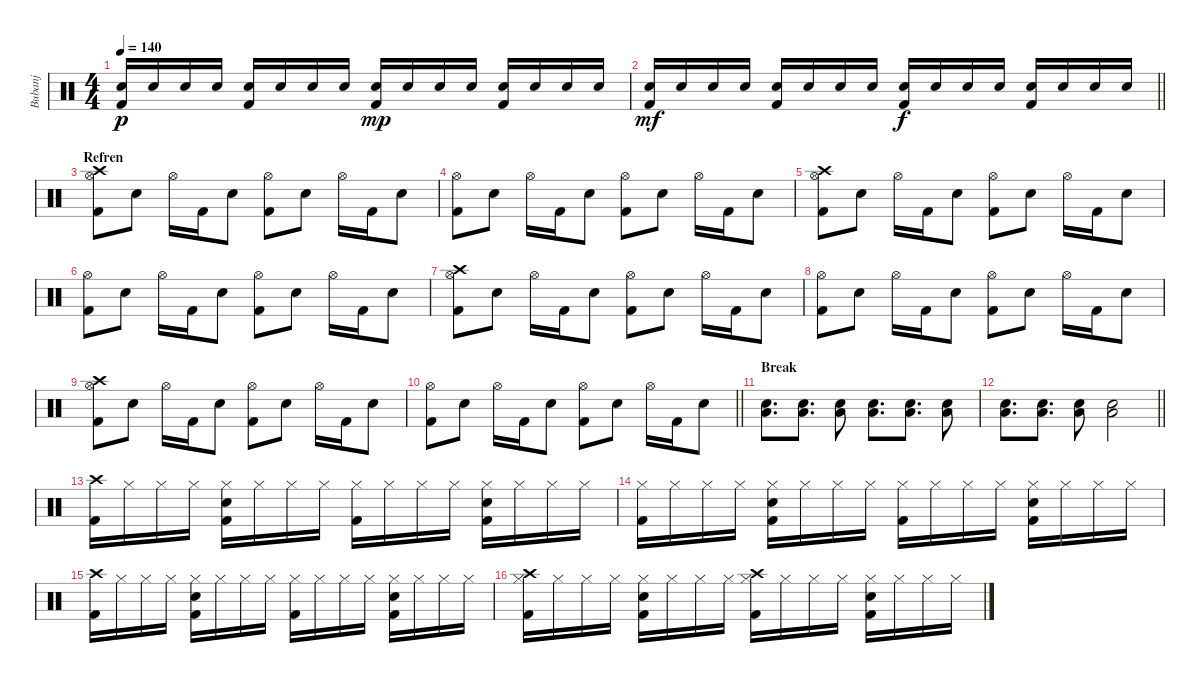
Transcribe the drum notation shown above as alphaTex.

\track ("Bubanj" "Bubanj") {instrument percussion}
\staff {score}
\articulation defaults
\ts (4 4)
\tempo 140
\clef neutral
\ks c
("Kick (hit) 2" "Snare (hit) 2").16{dy p} "Snare (hit) 2".16 "Snare (hit) 2".16 "Snare (hit) 2".16 ("Kick (hit) 2" "Snare (hit) 2").16 "Snare (hit) 2".16 "Snare (hit) 2".16 "Snare (hit) 2".16 ("Kick (hit) 2" "Snare (hit) 2").16{dy mp} "Snare (hit) 2".16 "Snare (hit) 2".16 "Snare (hit) 2".16 ("Kick (hit) 2" "Snare (hit) 2").16 "Snare (hit) 2".16 "Snare (hit) 2".16 "Snare (hit) 2".16 |
\barLineRight lightlight
("Kick (hit) 2" "Snare (hit) 2").16{dy mf} "Snare (hit) 2".16 "Snare (hit) 2".16 "Snare (hit) 2".16 ("Kick (hit) 2" "Snare (hit) 2").16 "Snare (hit) 2".16 "Snare (hit) 2".16 "Snare (hit) 2".16 ("Kick (hit) 2" "Snare (hit) 2").16{dy f} "Snare (hit) 2".16 "Snare (hit) 2".16 "Snare (hit) 2".16 ("Kick (hit) 2" "Snare (hit) 2").16 "Snare (hit) 2".16 "Snare (hit) 2".16 "Snare (hit) 2".16 |
\section ("" "Refren")
("Kick (hit) 2" "Hi-Hat (open)" "Crash high (hit)").8 "Snare (hit) 2".8 "Hi-Hat (open)".16 "Kick (hit) 2".16 "Snare (hit) 2".8 ("Kick (hit) 2" "Hi-Hat (open)").8 "Snare (hit) 2".8 "Hi-Hat (open)".16 "Kick (hit) 2".16 "Snare (hit) 2".8 |
("Kick (hit) 2" "Hi-Hat (open)").8 "Snare (hit) 2".8 "Hi-Hat (open)".16 "Kick (hit) 2".16 "Snare (hit) 2".8 ("Kick (hit) 2" "Hi-Hat (open)").8 "Snare (hit) 2".8 "Hi-Hat (open)".16 "Kick (hit) 2".16 "Snare (hit) 2".8 |
("Kick (hit) 2" "Hi-Hat (open)" "Crash high (hit)").8 "Snare (hit) 2".8 "Hi-Hat (open)".16 "Kick (hit) 2".16 "Snare (hit) 2".8 ("Kick (hit) 2" "Hi-Hat (open)").8 "Snare (hit) 2".8 "Hi-Hat (open)".16 "Kick (hit) 2".16 "Snare (hit) 2".8 |
("Kick (hit) 2" "Hi-Hat (open)").8 "Snare (hit) 2".8 "Hi-Hat (open)".16 "Kick (hit) 2".16 "Snare (hit) 2".8 ("Kick (hit) 2" "Hi-Hat (open)").8 "Snare (hit) 2".8 "Hi-Hat (open)".16 "Kick (hit) 2".16 "Snare (hit) 2".8 |
("Kick (hit) 2" "Hi-Hat (open)" "Crash high (hit)").8 "Snare (hit) 2".8 "Hi-Hat (open)".16 "Kick (hit) 2".16 "Snare (hit) 2".8 ("Kick (hit) 2" "Hi-Hat (open)").8 "Snare (hit) 2".8 "Hi-Hat (open)".16 "Kick (hit) 2".16 "Snare (hit) 2".8 |
("Kick (hit) 2" "Hi-Hat (open)").8 "Snare (hit) 2".8 "Hi-Hat (open)".16 "Kick (hit) 2".16 "Snare (hit) 2".8 ("Kick (hit) 2" "Hi-Hat (open)").8 "Snare (hit) 2".8 "Hi-Hat (open)".16 "Kick (hit) 2".16 "Snare (hit) 2".8 |
("Kick (hit) 2" "Hi-Hat (open)" "Crash high (hit)").8 "Snare (hit) 2".8 "Hi-Hat (open)".16 "Kick (hit) 2".16 "Snare (hit) 2".8 ("Kick (hit) 2" "Hi-Hat (open)").8 "Snare (hit) 2".8 "Hi-Hat (open)".16 "Kick (hit) 2".16 "Snare (hit) 2".8 |
\barLineRight lightlight
("Kick (hit) 2" "Hi-Hat (open)").8 "Snare (hit) 2".8 "Hi-Hat (open)".16 "Kick (hit) 2".16 "Snare (hit) 2".8 ("Kick (hit) 2" "Hi-Hat (open)").8 "Snare (hit) 2".8 "Hi-Hat (open)".16 "Kick (hit) 2".16 "Snare (hit) 2".8 |
\section ("" "Break")
("Low Floor Tom (hit)" "Snare (hit) 2").8{d} ("Low Floor Tom (hit)" "Snare (hit) 2").8{d} ("Low Floor Tom (hit)" "Snare (hit) 2").8 ("Low Floor Tom (hit)" "Snare (hit) 2").8{d} ("Low Floor Tom (hit)" "Snare (hit) 2").8{d} ("Low Floor Tom (hit)" "Snare (hit) 2").8 |
\barLineRight lightlight
("Low Floor Tom (hit)" "Snare (hit) 2").8{d} ("Low Floor Tom (hit)" "Snare (hit) 2").8{d} ("Low Floor Tom (hit)" "Snare (hit) 2").8 ("Low Floor Tom (hit)" "Snare (hit) 2").2 |
("Kick (hit) 2" "Crash high (hit)").16 "Hi-Hat (closed)".16 "Hi-Hat (closed)".16 "Hi-Hat (closed)".16 ("Kick (hit) 2" "Snare (hit) 2" "Hi-Hat (closed)").16 "Hi-Hat (closed)".16 "Hi-Hat (closed)".16 "Hi-Hat (closed)".16 ("Kick (hit) 2" "Hi-Hat (closed)").16 "Hi-Hat (closed)".16 "Hi-Hat (closed)".16 "Hi-Hat (closed)".16 ("Kick (hit) 2" "Snare (hit) 2" "Hi-Hat (closed)").16 "Hi-Hat (closed)".16 "Hi-Hat (closed)".16 "Hi-Hat (closed)".16 |
("Kick (hit) 2" "Hi-Hat (closed)").16 "Hi-Hat (closed)".16 "Hi-Hat (closed)".16 "Hi-Hat (closed)".16 ("Kick (hit) 2" "Snare (hit) 2" "Hi-Hat (closed)").16 "Hi-Hat (closed)".16 "Hi-Hat (closed)".16 "Hi-Hat (closed)".16 ("Kick (hit) 2" "Hi-Hat (closed)").16 "Hi-Hat (closed)".16 "Hi-Hat (closed)".16 "Hi-Hat (closed)".16 ("Kick (hit) 2" "Snare (hit) 2" "Hi-Hat (closed)").16 "Hi-Hat (closed)".16 "Hi-Hat (closed)".16 "Hi-Hat (closed)".16 |
("Kick (hit) 2" "Crash high (hit)").16 "Hi-Hat (closed)".16 "Hi-Hat (closed)".16 "Hi-Hat (closed)".16 ("Kick (hit) 2" "Snare (hit) 2" "Hi-Hat (closed)").16 "Hi-Hat (closed)".16 "Hi-Hat (closed)".16 "Hi-Hat (closed)".16 ("Kick (hit) 2" "Hi-Hat (closed)").16 "Hi-Hat (closed)".16 "Hi-Hat (closed)".16 "Hi-Hat (closed)".16 ("Kick (hit) 2" "Snare (hit) 2" "Hi-Hat (closed)").16 "Hi-Hat (closed)".16 "Hi-Hat (closed)".16 "Hi-Hat (closed)".16 |
("Kick (hit) 2" "Hi-Hat (closed)" "Crash high (hit)").16 "Hi-Hat (closed)".16 "Hi-Hat (closed)".16 "Hi-Hat (closed)".16 ("Kick (hit) 2" "Snare (hit) 2" "Hi-Hat (closed)").16 "Hi-Hat (closed)".16 "Hi-Hat (closed)".16 "Hi-Hat (closed)".16 ("Kick (hit) 2" "Hi-Hat (closed)" "Crash high (hit)").16 "Hi-Hat (closed)".16 "Hi-Hat (closed)".16 "Hi-Hat (closed)".16 ("Kick (hit) 2" "Snare (hit) 2" "Hi-Hat (closed)").16 "Hi-Hat (closed)".16 "Hi-Hat (closed)".16 "Hi-Hat (closed)".16
